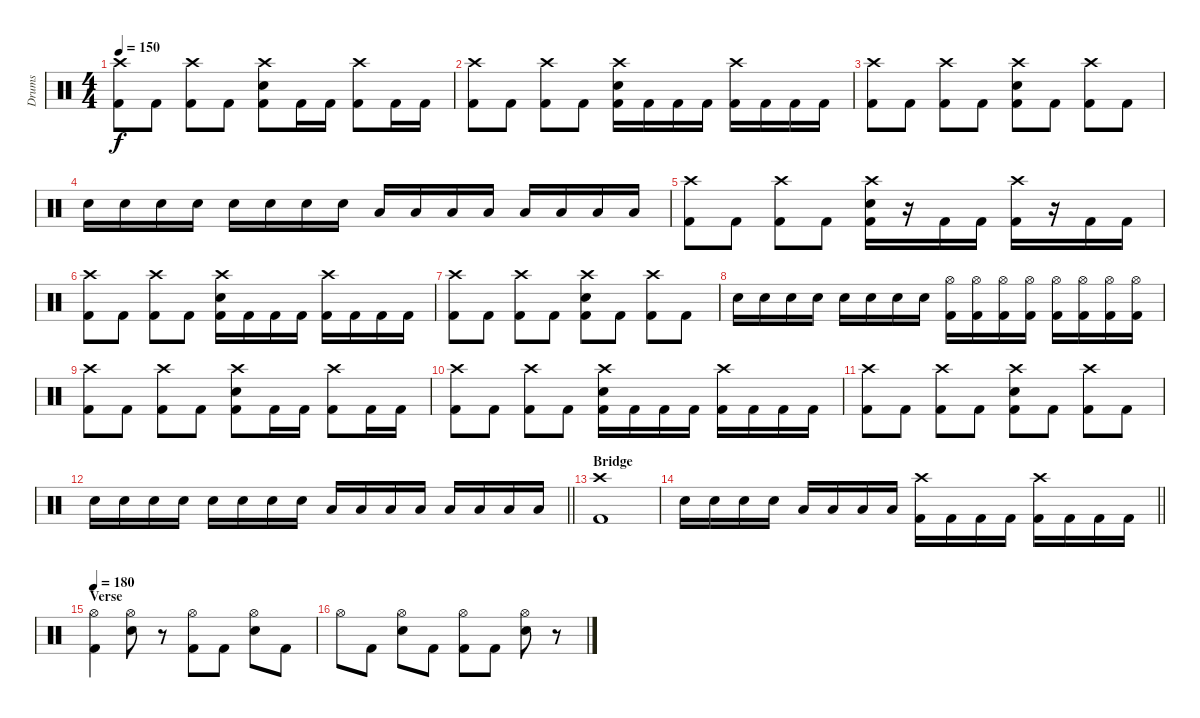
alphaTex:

\track ("Drums" "Drums") {instrument percussion}
\staff {score}
\articulation defaults
\ts (4 4)
\tempo 150
\clef neutral
\ks c
("Crash high (hit)" "Kick (hit) 2").8{dy f} "Kick (hit) 2".8 ("Crash high (hit)" "Kick (hit) 2").8 "Kick (hit) 2".8 ("Crash high (hit)" "Electric Snare (hit)" "Kick (hit) 2").8 "Kick (hit) 2".16 "Kick (hit) 2".16 ("Crash high (hit)" "Kick (hit) 2").8 "Kick (hit) 2".16 "Kick (hit) 2".16 |
("Crash high (hit)" "Kick (hit) 2").8 "Kick (hit) 2".8 ("Crash high (hit)" "Kick (hit) 2").8 "Kick (hit) 2".8 ("Crash high (hit)" "Electric Snare (hit)" "Kick (hit) 2").16 "Kick (hit) 2".16 "Kick (hit) 2".16 "Kick (hit) 2".16 ("Crash high (hit)" "Kick (hit) 2").16 "Kick (hit) 2".16 "Kick (hit) 2".16 "Kick (hit) 2".16 |
("Crash high (hit)" "Kick (hit) 2").8 "Kick (hit) 2".8 ("Crash high (hit)" "Kick (hit) 2").8 "Kick (hit) 2".8 ("Crash high (hit)" "Electric Snare (hit)" "Kick (hit) 2").8 "Kick (hit) 2".8 ("Crash high (hit)" "Kick (hit) 2").8 "Kick (hit) 2".8 |
"Electric Snare (hit)".16 "Electric Snare (hit)".16 "Electric Snare (hit)".16 "Electric Snare (hit)".16 "Electric Snare (hit)".16 "Electric Snare (hit)".16 "Electric Snare (hit)".16 "Electric Snare (hit)".16 "Low Tom (hit)".16 "Low Tom (hit)".16 "Low Tom (hit)".16 "Low Tom (hit)".16 "Low Floor Tom (hit)".16 "Low Floor Tom (hit)".16 "Low Floor Tom (hit)".16 "Low Floor Tom (hit)".16 |
("Crash high (hit)" "Kick (hit) 2").8 "Kick (hit) 2".8 ("Crash high (hit)" "Kick (hit) 2").8 "Kick (hit) 2".8 ("Crash high (hit)" "Electric Snare (hit)" "Kick (hit) 2").16 r.16 "Kick (hit) 2".16 "Kick (hit) 2".16 ("Crash high (hit)" "Kick (hit) 2").16 r.16 "Kick (hit) 2".16 "Kick (hit) 2".16 |
("Crash high (hit)" "Kick (hit) 2").8 "Kick (hit) 2".8 ("Crash high (hit)" "Kick (hit) 2").8 "Kick (hit) 2".8 ("Crash high (hit)" "Electric Snare (hit)" "Kick (hit) 2").16 "Kick (hit) 2".16 "Kick (hit) 2".16 "Kick (hit) 2".16 ("Crash high (hit)" "Kick (hit) 2").16 "Kick (hit) 2".16 "Kick (hit) 2".16 "Kick (hit) 2".16 |
("Crash high (hit)" "Kick (hit) 2").8 "Kick (hit) 2".8 ("Crash high (hit)" "Kick (hit) 2").8 "Kick (hit) 2".8 ("Crash high (hit)" "Electric Snare (hit)" "Kick (hit) 2").8 "Kick (hit) 2".8 ("Crash high (hit)" "Kick (hit) 2").8 "Kick (hit) 2".8 |
"Electric Snare (hit)".16 "Electric Snare (hit)".16 "Electric Snare (hit)".16 "Electric Snare (hit)".16 "Electric Snare (hit)".16 "Electric Snare (hit)".16 "Electric Snare (hit)".16 "Electric Snare (hit)".16 ("Hi-Hat (open)" "Kick (hit) 2").16 ("Hi-Hat (open)" "Kick (hit) 2").16 ("Hi-Hat (open)" "Kick (hit) 2").16 ("Hi-Hat (open)" "Kick (hit) 2").16 ("Hi-Hat (open)" "Kick (hit) 2").16 ("Hi-Hat (open)" "Kick (hit) 2").16 ("Hi-Hat (open)" "Kick (hit) 2").16 ("Hi-Hat (open)" "Kick (hit) 2").16 |
("Crash high (hit)" "Kick (hit) 2").8 "Kick (hit) 2".8 ("Crash high (hit)" "Kick (hit) 2").8 "Kick (hit) 2".8 ("Crash high (hit)" "Electric Snare (hit)" "Kick (hit) 2").8 "Kick (hit) 2".16 "Kick (hit) 2".16 ("Crash high (hit)" "Kick (hit) 2").8 "Kick (hit) 2".16 "Kick (hit) 2".16 |
("Crash high (hit)" "Kick (hit) 2").8 "Kick (hit) 2".8 ("Crash high (hit)" "Kick (hit) 2").8 "Kick (hit) 2".8 ("Crash high (hit)" "Electric Snare (hit)" "Kick (hit) 2").16 "Kick (hit) 2".16 "Kick (hit) 2".16 "Kick (hit) 2".16 ("Crash high (hit)" "Kick (hit) 2").16 "Kick (hit) 2".16 "Kick (hit) 2".16 "Kick (hit) 2".16 |
("Crash high (hit)" "Kick (hit) 2").8 "Kick (hit) 2".8 ("Crash high (hit)" "Kick (hit) 2").8 "Kick (hit) 2".8 ("Crash high (hit)" "Electric Snare (hit)" "Kick (hit) 2").8 "Kick (hit) 2".8 ("Crash high (hit)" "Kick (hit) 2").8 "Kick (hit) 2".8 |
\barLineRight lightlight "Electric Snare (hit)".16 "Electric Snare (hit)".16 "Electric Snare (hit)".16 "Electric Snare (hit)".16 "Electric Snare (hit)".16 "Electric Snare (hit)".16 "Electric Snare (hit)".16 "Electric Snare (hit)".16 "Low Tom (hit)".16 "Low Tom (hit)".16 "Low Tom (hit)".16 "Low Tom (hit)".16 "Low Floor Tom (hit)".16 "Low Floor Tom (hit)".16 "Low Floor Tom (hit)".16 "Low Floor Tom (hit)".16
|
\section ("" "Bridge")
("Crash high (hit)" "Kick (hit) 2").1 |
\barLineRight lightlight "Electric Snare (hit)".16 "Electric Snare (hit)".16 "Electric Snare (hit)".16 "Electric Snare (hit)".16 "Low Tom (hit)".16 "Low Tom (hit)".16 "Low Tom (hit)".16 "Low Tom (hit)".16
("Crash high (hit)" "Kick (hit) 2").16 "Kick (hit) 2".16 "Kick (hit) 2".16 "Kick (hit) 2".16 ("Crash high (hit)" "Kick (hit) 2").16 "Kick (hit) 2".16 "Kick (hit) 2".16 "Kick (hit) 2".16 |
\section ("" "Verse")
\tempo 180
("Hi-Hat (open)" "Kick (hit) 2").4 ("Hi-Hat (open)" "Electric Snare (hit)").8 r.8 ("Hi-Hat (open)" "Kick (hit) 2").8 "Kick (hit) 2".8 ("Hi-Hat (open)" "Electric Snare (hit)").8 "Kick (hit) 2".8 |
"Hi-Hat (open)".8 "Kick (hit) 2".8 ("Hi-Hat (open)" "Electric Snare (hit)").8 "Kick (hit) 2".8 ("Hi-Hat (open)" "Kick (hit) 2").8 "Kick (hit) 2".8 ("Hi-Hat (open)" "Electric Snare (hit)").8 r.8
